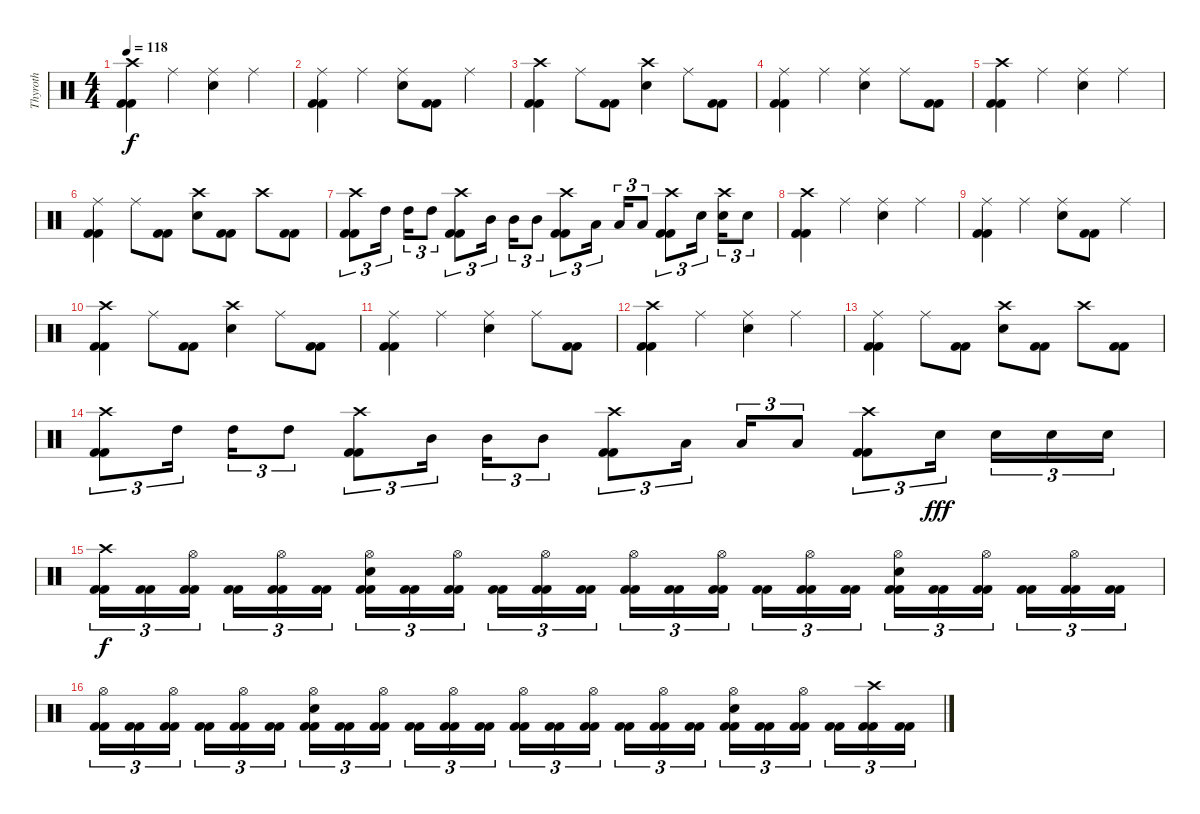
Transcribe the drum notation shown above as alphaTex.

\track ("Thyroth" "Thyroth") {instrument percussion}
\staff {score}
\articulation defaults
\ts (4 4)
\tempo 118
\clef neutral
\ks c
("Kick (hit) 2" "Kick (hit) 2" "Crash high (hit)").4{dy f} "Ride (middle)".4 ("Snare (hit) 2" "Ride (middle)").4 "Ride (middle)".4 |
("Kick (hit) 2" "Kick (hit) 2" "Ride (middle)").4 "Ride (middle)".4 ("Snare (hit) 2" "Ride (middle)").8 ("Kick (hit) 2" "Kick (hit) 2").8 "Ride (middle)".4 |
("Kick (hit) 2" "Kick (hit) 2" "Crash high (hit)").4 "Ride (middle)".8 ("Kick (hit) 2" "Kick (hit) 2").8 ("Snare (hit) 2" "Crash high (hit)").4 "Ride (middle)".8 ("Kick (hit) 2" "Kick (hit) 2").8 |
("Kick (hit) 2" "Kick (hit) 2" "Ride (middle)").4 "Ride (middle)".4 ("Snare (hit) 2" "Ride (middle)").4 "Ride (middle)".8 ("Kick (hit) 2" "Kick (hit) 2").8 |
("Kick (hit) 2" "Kick (hit) 2" "Crash high (hit)").4 "Ride (middle)".4 ("Snare (hit) 2" "Ride (middle)").4 "Ride (middle)".4 |
("Kick (hit) 2" "Kick (hit) 2" "Ride (middle)").4 "Ride (middle)".8 ("Kick (hit) 2" "Kick (hit) 2").8 ("Snare (hit) 2" "Crash high (hit)").8 ("Kick (hit) 2" "Kick (hit) 2").8 "Crash high (hit)".8 ("Kick (hit) 2" "Kick (hit) 2").8 |
("Kick (hit) 2" "Kick (hit) 2" "Crash high (hit)").8{tu (3 2)} "High Tom (hit)".16{tu (3 2)} "High Tom (hit)".16{tu (3 2)} "High Tom (hit)".8{tu (3 2)} ("Kick (hit) 2" "Kick (hit) 2" "Crash high (hit)").8{tu (3 2)} "Mid Tom (hit)".16{tu (3 2)} "Mid Tom (hit)".16{tu (3 2)} "Mid Tom (hit)".8{tu (3 2)} ("Kick (hit) 2" "Kick (hit) 2" "Crash high (hit)").8{tu (3 2)} "Low Tom (hit)".16{tu (3 2)} "Low Tom (hit)".16{tu (3 2)} "Low Tom (hit)".8{tu (3 2)} ("Kick (hit) 2" "Kick (hit) 2" "Crash high (hit)").8{tu (3 2)} "Snare (hit) 2".16{tu (3 2)} ("Snare (hit) 2" "Crash high (hit)").16{tu (3 2)} "Snare (hit) 2".8{tu (3 2)} |
("Kick (hit) 2" "Kick (hit) 2" "Crash high (hit)").4 "Ride (middle)".4 ("Snare (hit) 2" "Ride (middle)").4 "Ride (middle)".4 |
("Kick (hit) 2" "Kick (hit) 2" "Ride (middle)").4 "Ride (middle)".4 ("Snare (hit) 2" "Ride (middle)").8 ("Kick (hit) 2" "Kick (hit) 2").8 "Ride (middle)".4 |
("Kick (hit) 2" "Kick (hit) 2" "Crash high (hit)").4 "Ride (middle)".8 ("Kick (hit) 2" "Kick (hit) 2").8 ("Snare (hit) 2" "Crash high (hit)").4 "Ride (middle)".8 ("Kick (hit) 2" "Kick (hit) 2").8 |
("Kick (hit) 2" "Kick (hit) 2" "Ride (middle)").4 "Ride (middle)".4 ("Snare (hit) 2" "Ride (middle)").4 "Ride (middle)".8 ("Kick (hit) 2" "Kick (hit) 2").8 |
("Kick (hit) 2" "Kick (hit) 2" "Crash high (hit)").4 "Ride (middle)".4 ("Snare (hit) 2" "Ride (middle)").4 "Ride (middle)".4 |
("Kick (hit) 2" "Kick (hit) 2" "Ride (middle)").4 "Ride (middle)".8 ("Kick (hit) 2" "Kick (hit) 2").8 ("Snare (hit) 2" "Crash high (hit)").8 ("Kick (hit) 2" "Kick (hit) 2").8 "Crash high (hit)".8 ("Kick (hit) 2" "Kick (hit) 2").8 |
("Kick (hit) 2" "Kick (hit) 2" "Crash high (hit)").8{tu (3 2)} "High Tom (hit)".16{tu (3 2)} "High Tom (hit)".16{tu (3 2)} "High Tom (hit)".8{tu (3 2)} ("Kick (hit) 2" "Kick (hit) 2" "Crash high (hit)").8{tu (3 2)} "Mid Tom (hit)".16{tu (3 2)} "Mid Tom (hit)".16{tu (3 2)} "Mid Tom (hit)".8{tu (3 2)} ("Kick (hit) 2" "Kick (hit) 2" "Crash high (hit)").8{tu (3 2)} "Low Tom (hit)".16{tu (3 2)} "Low Tom (hit)".16{tu (3 2)} "Low Tom (hit)".8{tu (3 2)} ("Kick (hit) 2" "Kick (hit) 2" "Crash high (hit)").8{tu (3 2)} "Snare (hit) 2".16{tu (3 2) dy fff} "Snare (hit) 2".16{tu (3 2)} "Snare (hit) 2".16{tu (3 2)} "Snare (hit) 2".16{tu (3 2)} |
("Kick (hit) 2" "Kick (hit) 2" "Crash high (hit)").16{tu (3 2) dy f} ("Kick (hit) 2" "Kick (hit) 2").16{tu (3 2)} ("Kick (hit) 2" "Kick (hit) 2" "Hi-Hat (open)").16{tu (3 2)} ("Kick (hit) 2" "Kick (hit) 2").16{tu (3 2)} ("Kick (hit) 2" "Kick (hit) 2" "Hi-Hat (open)").16{tu (3 2)} ("Kick (hit) 2" "Kick (hit) 2").16{tu (3 2)} ("Kick (hit) 2" "Kick (hit) 2" "Snare (hit) 2" "Hi-Hat (open)").16{tu (3 2)} ("Kick (hit) 2" "Kick (hit) 2").16{tu (3 2)} ("Kick (hit) 2" "Kick (hit) 2" "Hi-Hat (open)").16{tu (3 2)} ("Kick (hit) 2" "Kick (hit) 2").16{tu (3 2)} ("Kick (hit) 2" "Kick (hit) 2" "Hi-Hat (open)").16{tu (3 2)} ("Kick (hit) 2" "Kick (hit) 2").16{tu (3 2)} ("Kick (hit) 2" "Kick (hit) 2" "Hi-Hat (open)").16{tu (3 2)} ("Kick (hit) 2" "Kick (hit) 2").16{tu (3 2)} ("Kick (hit) 2" "Kick (hit) 2" "Hi-Hat (open)").16{tu (3 2)} ("Kick (hit) 2" "Kick (hit) 2").16{tu (3 2)} ("Kick (hit) 2" "Kick (hit) 2" "Hi-Hat (open)").16{tu (3 2)} ("Kick (hit) 2" "Kick (hit) 2").16{tu (3 2)} ("Kick (hit) 2" "Kick (hit) 2" "Snare (hit) 2" "Hi-Hat (open)").16{tu (3 2)} ("Kick (hit) 2" "Kick (hit) 2").16{tu (3 2)} ("Kick (hit) 2" "Kick (hit) 2" "Hi-Hat (open)").16{tu (3 2)} ("Kick (hit) 2" "Kick (hit) 2").16{tu (3 2)} ("Kick (hit) 2" "Kick (hit) 2" "Hi-Hat (open)").16{tu (3 2)} ("Kick (hit) 2" "Kick (hit) 2").16{tu (3 2)} |
("Kick (hit) 2" "Kick (hit) 2" "Hi-Hat (open)").16{tu (3 2)} ("Kick (hit) 2" "Kick (hit) 2").16{tu (3 2)} ("Kick (hit) 2" "Kick (hit) 2" "Hi-Hat (open)").16{tu (3 2)} ("Kick (hit) 2" "Kick (hit) 2").16{tu (3 2)} ("Kick (hit) 2" "Kick (hit) 2" "Hi-Hat (open)").16{tu (3 2)} ("Kick (hit) 2" "Kick (hit) 2").16{tu (3 2)} ("Kick (hit) 2" "Kick (hit) 2" "Snare (hit) 2" "Hi-Hat (open)").16{tu (3 2)} ("Kick (hit) 2" "Kick (hit) 2").16{tu (3 2)} ("Kick (hit) 2" "Kick (hit) 2" "Hi-Hat (open)").16{tu (3 2)} ("Kick (hit) 2" "Kick (hit) 2").16{tu (3 2)} ("Kick (hit) 2" "Kick (hit) 2" "Hi-Hat (open)").16{tu (3 2)} ("Kick (hit) 2" "Kick (hit) 2").16{tu (3 2)} ("Kick (hit) 2" "Kick (hit) 2" "Hi-Hat (open)").16{tu (3 2)} ("Kick (hit) 2" "Kick (hit) 2").16{tu (3 2)} ("Kick (hit) 2" "Kick (hit) 2" "Hi-Hat (open)").16{tu (3 2)} ("Kick (hit) 2" "Kick (hit) 2").16{tu (3 2)} ("Kick (hit) 2" "Kick (hit) 2" "Hi-Hat (open)").16{tu (3 2)} ("Kick (hit) 2" "Kick (hit) 2").16{tu (3 2)} ("Kick (hit) 2" "Kick (hit) 2" "Snare (hit) 2" "Hi-Hat (open)").16{tu (3 2)} ("Kick (hit) 2" "Kick (hit) 2").16{tu (3 2)} ("Kick (hit) 2" "Kick (hit) 2" "Hi-Hat (open)").16{tu (3 2)} ("Kick (hit) 2" "Kick (hit) 2").16{tu (3 2)} ("Kick (hit) 2" "Kick (hit) 2" "Crash high (hit)").16{tu (3 2)} ("Kick (hit) 2" "Kick (hit) 2").16{tu (3 2)}
